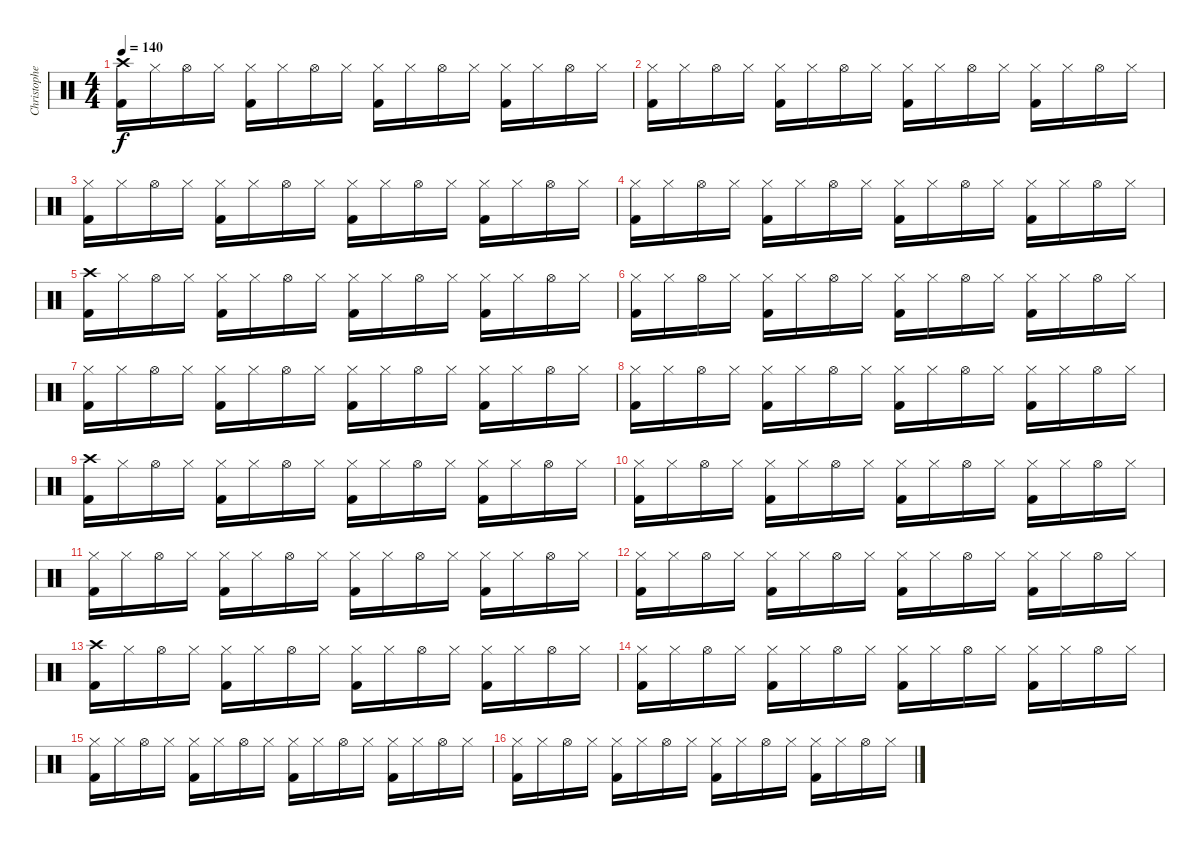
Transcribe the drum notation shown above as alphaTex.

\track ("Christopher Lawrence " "Christophe") {instrument percussion}
\staff {score}
\articulation defaults
\ts (4 4)
\tempo 140
\clef neutral
\ks c
("Crash high (hit)" "Kick (hit) 2").16{dy f} "Hi-Hat (closed)".16 "Hi-Hat (open)".16 "Hi-Hat (closed)".16 ("Hi-Hat (closed)" "Kick (hit) 2").16 "Hi-Hat (closed)".16 "Hi-Hat (open)".16 "Hi-Hat (closed)".16 ("Hi-Hat (closed)" "Kick (hit) 2").16 "Hi-Hat (closed)".16 "Hi-Hat (open)".16 "Hi-Hat (closed)".16 ("Hi-Hat (closed)" "Kick (hit) 2").16 "Hi-Hat (closed)".16 "Hi-Hat (open)".16 "Hi-Hat (closed)".16 |
("Hi-Hat (closed)" "Kick (hit) 2").16 "Hi-Hat (closed)".16 "Hi-Hat (open)".16 "Hi-Hat (closed)".16 ("Hi-Hat (closed)" "Kick (hit) 2").16 "Hi-Hat (closed)".16 "Hi-Hat (open)".16 "Hi-Hat (closed)".16 ("Hi-Hat (closed)" "Kick (hit) 2").16 "Hi-Hat (closed)".16 "Hi-Hat (open)".16 "Hi-Hat (closed)".16 ("Hi-Hat (closed)" "Kick (hit) 2").16 "Hi-Hat (closed)".16 "Hi-Hat (open)".16 "Hi-Hat (closed)".16 |
("Hi-Hat (closed)" "Kick (hit) 2").16 "Hi-Hat (closed)".16 "Hi-Hat (open)".16 "Hi-Hat (closed)".16 ("Hi-Hat (closed)" "Kick (hit) 2").16 "Hi-Hat (closed)".16 "Hi-Hat (open)".16 "Hi-Hat (closed)".16 ("Hi-Hat (closed)" "Kick (hit) 2").16 "Hi-Hat (closed)".16 "Hi-Hat (open)".16 "Hi-Hat (closed)".16 ("Hi-Hat (closed)" "Kick (hit) 2").16 "Hi-Hat (closed)".16 "Hi-Hat (open)".16 "Hi-Hat (closed)".16 |
("Hi-Hat (closed)" "Kick (hit) 2").16 "Hi-Hat (closed)".16 "Hi-Hat (open)".16 "Hi-Hat (closed)".16 ("Hi-Hat (closed)" "Kick (hit) 2").16 "Hi-Hat (closed)".16 "Hi-Hat (open)".16 "Hi-Hat (closed)".16 ("Hi-Hat (closed)" "Kick (hit) 2").16 "Hi-Hat (closed)".16 "Hi-Hat (open)".16 "Hi-Hat (closed)".16 ("Hi-Hat (closed)" "Kick (hit) 2").16 "Hi-Hat (closed)".16 "Hi-Hat (open)".16 "Hi-Hat (closed)".16 |
("Crash high (hit)" "Kick (hit) 2").16 "Hi-Hat (closed)".16 "Hi-Hat (open)".16 "Hi-Hat (closed)".16 ("Hi-Hat (closed)" "Kick (hit) 2").16 "Hi-Hat (closed)".16 "Hi-Hat (open)".16 "Hi-Hat (closed)".16 ("Hi-Hat (closed)" "Kick (hit) 2").16 "Hi-Hat (closed)".16 "Hi-Hat (open)".16 "Hi-Hat (closed)".16 ("Hi-Hat (closed)" "Kick (hit) 2").16 "Hi-Hat (closed)".16 "Hi-Hat (open)".16 "Hi-Hat (closed)".16 |
("Hi-Hat (closed)" "Kick (hit) 2").16 "Hi-Hat (closed)".16 "Hi-Hat (open)".16 "Hi-Hat (closed)".16 ("Hi-Hat (closed)" "Kick (hit) 2").16 "Hi-Hat (closed)".16 "Hi-Hat (open)".16 "Hi-Hat (closed)".16 ("Hi-Hat (closed)" "Kick (hit) 2").16 "Hi-Hat (closed)".16 "Hi-Hat (open)".16 "Hi-Hat (closed)".16 ("Hi-Hat (closed)" "Kick (hit) 2").16 "Hi-Hat (closed)".16 "Hi-Hat (open)".16 "Hi-Hat (closed)".16 |
("Hi-Hat (closed)" "Kick (hit) 2").16 "Hi-Hat (closed)".16 "Hi-Hat (open)".16 "Hi-Hat (closed)".16 ("Hi-Hat (closed)" "Kick (hit) 2").16 "Hi-Hat (closed)".16 "Hi-Hat (open)".16 "Hi-Hat (closed)".16 ("Hi-Hat (closed)" "Kick (hit) 2").16 "Hi-Hat (closed)".16 "Hi-Hat (open)".16 "Hi-Hat (closed)".16 ("Hi-Hat (closed)" "Kick (hit) 2").16 "Hi-Hat (closed)".16 "Hi-Hat (open)".16 "Hi-Hat (closed)".16 |
("Hi-Hat (closed)" "Kick (hit) 2").16 "Hi-Hat (closed)".16 "Hi-Hat (open)".16 "Hi-Hat (closed)".16 ("Hi-Hat (closed)" "Kick (hit) 2").16 "Hi-Hat (closed)".16 "Hi-Hat (open)".16 "Hi-Hat (closed)".16 ("Hi-Hat (closed)" "Kick (hit) 2").16 "Hi-Hat (closed)".16 "Hi-Hat (open)".16 "Hi-Hat (closed)".16 ("Hi-Hat (closed)" "Kick (hit) 2").16 "Hi-Hat (closed)".16 "Hi-Hat (open)".16 "Hi-Hat (closed)".16 |
("Crash high (hit)" "Kick (hit) 2").16 "Hi-Hat (closed)".16 "Hi-Hat (open)".16 "Hi-Hat (closed)".16 ("Hi-Hat (closed)" "Kick (hit) 2").16 "Hi-Hat (closed)".16 "Hi-Hat (open)".16 "Hi-Hat (closed)".16 ("Hi-Hat (closed)" "Kick (hit) 2").16 "Hi-Hat (closed)".16 "Hi-Hat (open)".16 "Hi-Hat (closed)".16 ("Hi-Hat (closed)" "Kick (hit) 2").16 "Hi-Hat (closed)".16 "Hi-Hat (open)".16 "Hi-Hat (closed)".16 |
("Hi-Hat (closed)" "Kick (hit) 2").16 "Hi-Hat (closed)".16 "Hi-Hat (open)".16 "Hi-Hat (closed)".16 ("Hi-Hat (closed)" "Kick (hit) 2").16 "Hi-Hat (closed)".16 "Hi-Hat (open)".16 "Hi-Hat (closed)".16 ("Hi-Hat (closed)" "Kick (hit) 2").16 "Hi-Hat (closed)".16 "Hi-Hat (open)".16 "Hi-Hat (closed)".16 ("Hi-Hat (closed)" "Kick (hit) 2").16 "Hi-Hat (closed)".16 "Hi-Hat (open)".16 "Hi-Hat (closed)".16 |
("Hi-Hat (closed)" "Kick (hit) 2").16 "Hi-Hat (closed)".16 "Hi-Hat (open)".16 "Hi-Hat (closed)".16 ("Hi-Hat (closed)" "Kick (hit) 2").16 "Hi-Hat (closed)".16 "Hi-Hat (open)".16 "Hi-Hat (closed)".16 ("Hi-Hat (closed)" "Kick (hit) 2").16 "Hi-Hat (closed)".16 "Hi-Hat (open)".16 "Hi-Hat (closed)".16 ("Hi-Hat (closed)" "Kick (hit) 2").16 "Hi-Hat (closed)".16 "Hi-Hat (open)".16 "Hi-Hat (closed)".16 |
("Hi-Hat (closed)" "Kick (hit) 2").16 "Hi-Hat (closed)".16 "Hi-Hat (open)".16 "Hi-Hat (closed)".16 ("Hi-Hat (closed)" "Kick (hit) 2").16 "Hi-Hat (closed)".16 "Hi-Hat (open)".16 "Hi-Hat (closed)".16 ("Hi-Hat (closed)" "Kick (hit) 2").16 "Hi-Hat (closed)".16 "Hi-Hat (open)".16 "Hi-Hat (closed)".16 ("Hi-Hat (closed)" "Kick (hit) 2").16 "Hi-Hat (closed)".16 "Hi-Hat (open)".16 "Hi-Hat (closed)".16 |
("Crash high (hit)" "Kick (hit) 2").16 "Hi-Hat (closed)".16 "Hi-Hat (open)".16 "Hi-Hat (closed)".16 ("Hi-Hat (closed)" "Kick (hit) 2").16 "Hi-Hat (closed)".16 "Hi-Hat (open)".16 "Hi-Hat (closed)".16 ("Hi-Hat (closed)" "Kick (hit) 2").16 "Hi-Hat (closed)".16 "Hi-Hat (open)".16 "Hi-Hat (closed)".16 ("Hi-Hat (closed)" "Kick (hit) 2").16 "Hi-Hat (closed)".16 "Hi-Hat (open)".16 "Hi-Hat (closed)".16 |
("Hi-Hat (closed)" "Kick (hit) 2").16 "Hi-Hat (closed)".16 "Hi-Hat (open)".16 "Hi-Hat (closed)".16 ("Hi-Hat (closed)" "Kick (hit) 2").16 "Hi-Hat (closed)".16 "Hi-Hat (open)".16 "Hi-Hat (closed)".16 ("Hi-Hat (closed)" "Kick (hit) 2").16 "Hi-Hat (closed)".16 "Hi-Hat (open)".16 "Hi-Hat (closed)".16 ("Hi-Hat (closed)" "Kick (hit) 2").16 "Hi-Hat (closed)".16 "Hi-Hat (open)".16 "Hi-Hat (closed)".16 |
("Hi-Hat (closed)" "Kick (hit) 2").16 "Hi-Hat (closed)".16 "Hi-Hat (open)".16 "Hi-Hat (closed)".16 ("Hi-Hat (closed)" "Kick (hit) 2").16 "Hi-Hat (closed)".16 "Hi-Hat (open)".16 "Hi-Hat (closed)".16 ("Hi-Hat (closed)" "Kick (hit) 2").16 "Hi-Hat (closed)".16 "Hi-Hat (open)".16 "Hi-Hat (closed)".16 ("Hi-Hat (closed)" "Kick (hit) 2").16 "Hi-Hat (closed)".16 "Hi-Hat (open)".16 "Hi-Hat (closed)".16 |
("Hi-Hat (closed)" "Kick (hit) 2").16 "Hi-Hat (closed)".16 "Hi-Hat (open)".16 "Hi-Hat (closed)".16 ("Hi-Hat (closed)" "Kick (hit) 2").16 "Hi-Hat (closed)".16 "Hi-Hat (open)".16 "Hi-Hat (closed)".16 ("Hi-Hat (closed)" "Kick (hit) 2").16 "Hi-Hat (closed)".16 "Hi-Hat (open)".16 "Hi-Hat (closed)".16 ("Hi-Hat (closed)" "Kick (hit) 2").16 "Hi-Hat (closed)".16 "Hi-Hat (open)".16 "Hi-Hat (closed)".16
